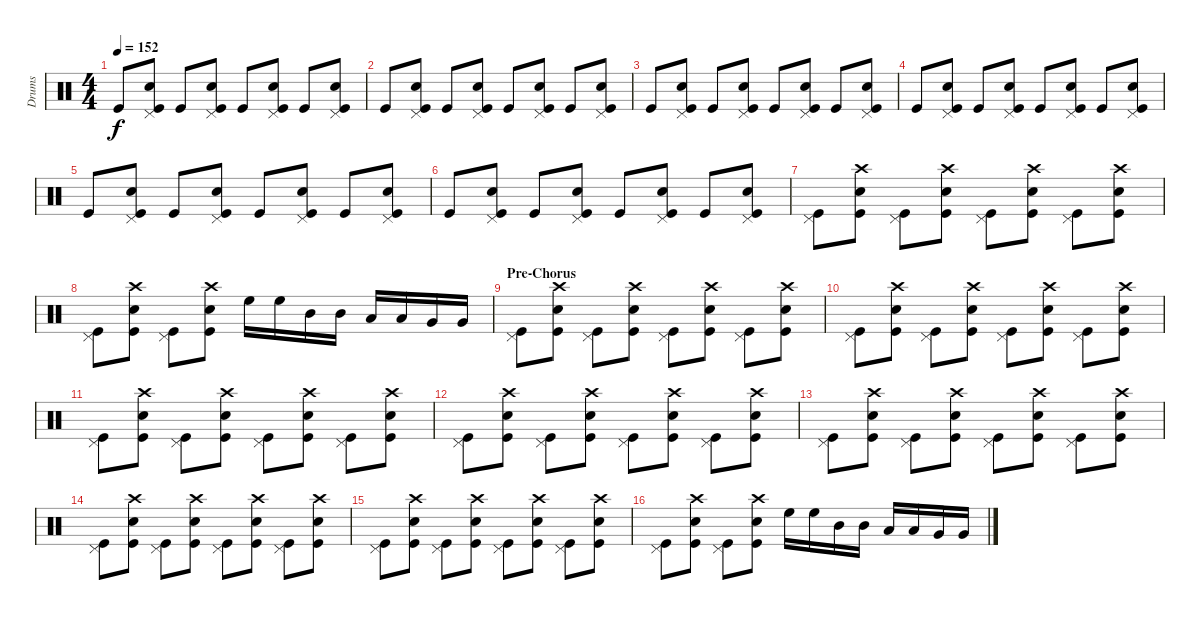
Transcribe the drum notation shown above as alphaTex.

\track ("Drums" "Drums") {instrument percussion}
\staff {score}
\articulation defaults
\ts (4 4)
\tempo 152
\clef neutral
\ks c "Kick (hit)".8{dy f}
("Pedal Hi-Hat (hit)" "Electric Snare (hit)" "Kick (hit)").8 "Kick (hit)".8 ("Pedal Hi-Hat (hit)" "Electric Snare (hit)" "Kick (hit)").8 "Kick (hit)".8 ("Pedal Hi-Hat (hit)" "Electric Snare (hit)" "Kick (hit)").8 "Kick (hit)".8 ("Pedal Hi-Hat (hit)" "Electric Snare (hit)" "Kick (hit)").8 |
"Kick (hit)".8 ("Pedal Hi-Hat (hit)" "Electric Snare (hit)" "Kick (hit)").8 "Kick (hit)".8 ("Pedal Hi-Hat (hit)" "Electric Snare (hit)" "Kick (hit)").8 "Kick (hit)".8 ("Pedal Hi-Hat (hit)" "Electric Snare (hit)" "Kick (hit)").8 "Kick (hit)".8 ("Pedal Hi-Hat (hit)" "Electric Snare (hit)" "Kick (hit)").8 |
"Kick (hit)".8 ("Pedal Hi-Hat (hit)" "Electric Snare (hit)" "Kick (hit)").8 "Kick (hit)".8 ("Pedal Hi-Hat (hit)" "Electric Snare (hit)" "Kick (hit)").8 "Kick (hit)".8 ("Pedal Hi-Hat (hit)" "Electric Snare (hit)" "Kick (hit)").8 "Kick (hit)".8 ("Pedal Hi-Hat (hit)" "Electric Snare (hit)" "Kick (hit)").8 |
"Kick (hit)".8 ("Pedal Hi-Hat (hit)" "Electric Snare (hit)" "Kick (hit)").8 "Kick (hit)".8 ("Pedal Hi-Hat (hit)" "Electric Snare (hit)" "Kick (hit)").8 "Kick (hit)".8 ("Pedal Hi-Hat (hit)" "Electric Snare (hit)" "Kick (hit)").8 "Kick (hit)".8 ("Pedal Hi-Hat (hit)" "Electric Snare (hit)" "Kick (hit)").8 |
"Kick (hit)".8 ("Pedal Hi-Hat (hit)" "Electric Snare (hit)" "Kick (hit)").8 "Kick (hit)".8 ("Pedal Hi-Hat (hit)" "Electric Snare (hit)" "Kick (hit)").8 "Kick (hit)".8 ("Pedal Hi-Hat (hit)" "Electric Snare (hit)" "Kick (hit)").8 "Kick (hit)".8 ("Pedal Hi-Hat (hit)" "Electric Snare (hit)" "Kick (hit)").8 |
"Kick (hit)".8 ("Pedal Hi-Hat (hit)" "Electric Snare (hit)" "Kick (hit)").8 "Kick (hit)".8 ("Pedal Hi-Hat (hit)" "Electric Snare (hit)" "Kick (hit)").8 "Kick (hit)".8 ("Pedal Hi-Hat (hit)" "Electric Snare (hit)" "Kick (hit)").8 "Kick (hit)".8 ("Pedal Hi-Hat (hit)" "Electric Snare (hit)" "Kick (hit)").8 |
("Pedal Hi-Hat (hit)" "Kick (hit)").8 ("Crash high (hit)" "Electric Snare (hit)" "Kick (hit)").8 ("Pedal Hi-Hat (hit)" "Kick (hit)").8 ("Crash high (hit)" "Electric Snare (hit)" "Kick (hit)").8 ("Pedal Hi-Hat (hit)" "Kick (hit)").8 ("Crash high (hit)" "Electric Snare (hit)" "Kick (hit)").8 ("Pedal Hi-Hat (hit)" "Kick (hit)").8 ("Crash high (hit)" "Electric Snare (hit)" "Kick (hit)").8 |
("Pedal Hi-Hat (hit)" "Kick (hit)").8 ("Crash high (hit)" "Electric Snare (hit)" "Kick (hit)").8 ("Pedal Hi-Hat (hit)" "Kick (hit)").8 ("Crash high (hit)" "Electric Snare (hit)" "Kick (hit)").8 "High Floor Tom (hit)".16 "High Floor Tom (hit)".16 "Mid Tom (hit)".16 "Mid Tom (hit)".16 "Low Tom (hit)".16 "Low Tom (hit)".16 "Very Low Tom (hit)".16 "Very Low Tom (hit)".16 |
\section ("" "Pre-Chorus")
("Pedal Hi-Hat (hit)" "Kick (hit)").8 ("Crash high (hit)" "Electric Snare (hit)" "Kick (hit)").8 ("Pedal Hi-Hat (hit)" "Kick (hit)").8 ("Crash high (hit)" "Electric Snare (hit)" "Kick (hit)").8 ("Pedal Hi-Hat (hit)" "Kick (hit)").8 ("Crash high (hit)" "Electric Snare (hit)" "Kick (hit)").8 ("Pedal Hi-Hat (hit)" "Kick (hit)").8 ("Crash high (hit)" "Electric Snare (hit)" "Kick (hit)").8 |
("Pedal Hi-Hat (hit)" "Kick (hit)").8 ("Crash high (hit)" "Electric Snare (hit)" "Kick (hit)").8 ("Pedal Hi-Hat (hit)" "Kick (hit)").8 ("Crash high (hit)" "Electric Snare (hit)" "Kick (hit)").8 ("Pedal Hi-Hat (hit)" "Kick (hit)").8 ("Crash high (hit)" "Electric Snare (hit)" "Kick (hit)").8 ("Pedal Hi-Hat (hit)" "Kick (hit)").8 ("Crash high (hit)" "Electric Snare (hit)" "Kick (hit)").8 |
("Pedal Hi-Hat (hit)" "Kick (hit)").8 ("Crash high (hit)" "Electric Snare (hit)" "Kick (hit)").8 ("Pedal Hi-Hat (hit)" "Kick (hit)").8 ("Crash high (hit)" "Electric Snare (hit)" "Kick (hit)").8 ("Pedal Hi-Hat (hit)" "Kick (hit)").8 ("Crash high (hit)" "Electric Snare (hit)" "Kick (hit)").8 ("Pedal Hi-Hat (hit)" "Kick (hit)").8 ("Crash high (hit)" "Electric Snare (hit)" "Kick (hit)").8 |
("Pedal Hi-Hat (hit)" "Kick (hit)").8 ("Crash high (hit)" "Electric Snare (hit)" "Kick (hit)").8 ("Pedal Hi-Hat (hit)" "Kick (hit)").8 ("Crash high (hit)" "Electric Snare (hit)" "Kick (hit)").8 ("Pedal Hi-Hat (hit)" "Kick (hit)").8 ("Crash high (hit)" "Electric Snare (hit)" "Kick (hit)").8 ("Pedal Hi-Hat (hit)" "Kick (hit)").8 ("Crash high (hit)" "Electric Snare (hit)" "Kick (hit)").8 |
("Pedal Hi-Hat (hit)" "Kick (hit)").8 ("Crash high (hit)" "Electric Snare (hit)" "Kick (hit)").8 ("Pedal Hi-Hat (hit)" "Kick (hit)").8 ("Crash high (hit)" "Electric Snare (hit)" "Kick (hit)").8 ("Pedal Hi-Hat (hit)" "Kick (hit)").8 ("Crash high (hit)" "Electric Snare (hit)" "Kick (hit)").8 ("Pedal Hi-Hat (hit)" "Kick (hit)").8 ("Crash high (hit)" "Electric Snare (hit)" "Kick (hit)").8 |
("Pedal Hi-Hat (hit)" "Kick (hit)").8 ("Crash high (hit)" "Electric Snare (hit)" "Kick (hit)").8 ("Pedal Hi-Hat (hit)" "Kick (hit)").8 ("Crash high (hit)" "Electric Snare (hit)" "Kick (hit)").8 ("Pedal Hi-Hat (hit)" "Kick (hit)").8 ("Crash high (hit)" "Electric Snare (hit)" "Kick (hit)").8 ("Pedal Hi-Hat (hit)" "Kick (hit)").8 ("Crash high (hit)" "Electric Snare (hit)" "Kick (hit)").8 |
("Pedal Hi-Hat (hit)" "Kick (hit)").8 ("Crash high (hit)" "Electric Snare (hit)" "Kick (hit)").8 ("Pedal Hi-Hat (hit)" "Kick (hit)").8 ("Crash high (hit)" "Electric Snare (hit)" "Kick (hit)").8 ("Pedal Hi-Hat (hit)" "Kick (hit)").8 ("Crash high (hit)" "Electric Snare (hit)" "Kick (hit)").8 ("Pedal Hi-Hat (hit)" "Kick (hit)").8 ("Crash high (hit)" "Electric Snare (hit)" "Kick (hit)").8 |
("Pedal Hi-Hat (hit)" "Kick (hit)").8 ("Crash high (hit)" "Electric Snare (hit)" "Kick (hit)").8 ("Pedal Hi-Hat (hit)" "Kick (hit)").8 ("Crash high (hit)" "Electric Snare (hit)" "Kick (hit)").8 "High Floor Tom (hit)".16 "High Floor Tom (hit)".16 "Mid Tom (hit)".16 "Mid Tom (hit)".16 "Low Tom (hit)".16 "Low Tom (hit)".16 "Very Low Tom (hit)".16 "Very Low Tom (hit)".16
